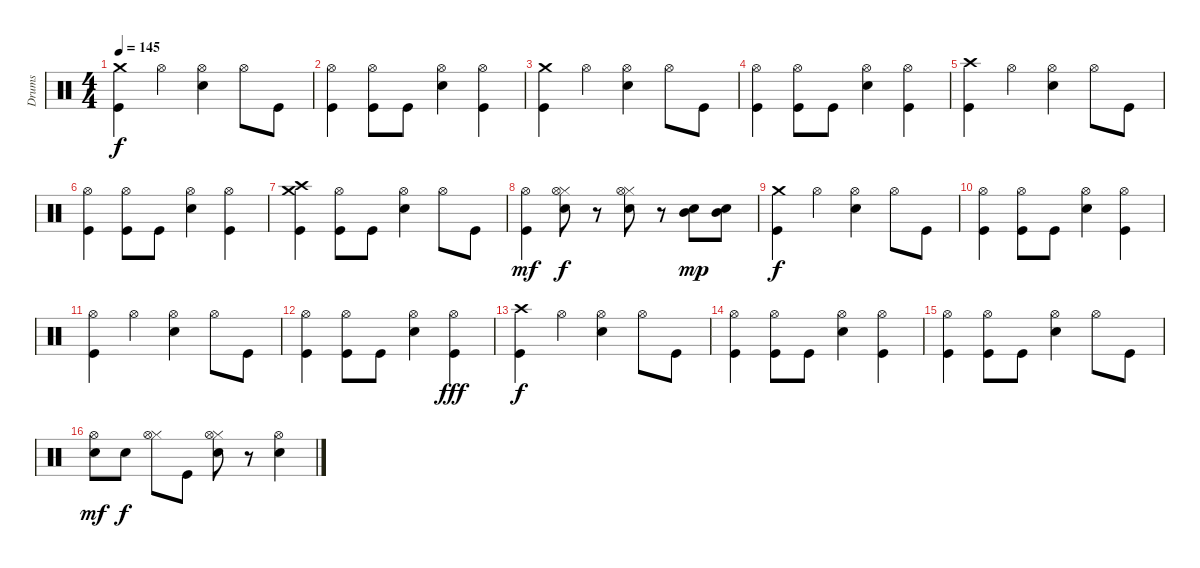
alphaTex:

\track ("Drums" "Drums") {instrument percussion}
\staff {score}
\articulation defaults
\ts (4 4)
\tempo 145
\clef neutral
\ks c
("Kick (hit)" "Crash medium (hit)").4{dy f} "Hi-Hat (open)".4 ("Hi-Hat (open)" "Electric Snare (hit)").4 "Hi-Hat (open)".8 "Kick (hit)".8 |
("Kick (hit)" "Hi-Hat (open)").4 ("Kick (hit)" "Hi-Hat (open)").8 "Kick (hit)".8 ("Hi-Hat (open)" "Electric Snare (hit)").4 ("Kick (hit)" "Hi-Hat (open)").4 |
("Kick (hit)" "Crash medium (hit)").4 "Hi-Hat (open)".4 ("Hi-Hat (open)" "Electric Snare (hit)").4 "Hi-Hat (open)".8 "Kick (hit)".8 |
("Kick (hit)" "Hi-Hat (open)").4 ("Kick (hit)" "Hi-Hat (open)").8 "Kick (hit)".8 ("Hi-Hat (open)" "Electric Snare (hit)").4 ("Kick (hit)" "Hi-Hat (open)").4 |
("Kick (hit)" "Crash high (hit)").4 "Hi-Hat (open)".4 ("Hi-Hat (open)" "Electric Snare (hit)").4 "Hi-Hat (open)".8 "Kick (hit)".8 |
("Kick (hit)" "Hi-Hat (open)").4 ("Kick (hit)" "Hi-Hat (open)").8 "Kick (hit)".8 ("Hi-Hat (open)" "Electric Snare (hit)").4 ("Kick (hit)" "Hi-Hat (open)").4 |
("Kick (hit)" "Crash high (hit)" "Crash medium (hit)").4 ("Kick (hit)" "Hi-Hat (open)").8 "Kick (hit)".8 ("Hi-Hat (open)" "Electric Snare (hit)").4 "Hi-Hat (open)".8 "Kick (hit)".8 |
("Kick (hit)" "Hi-Hat (open)").4{dy mf} ("Hi-Hat (closed)" "Hi-Hat (open)" "Snare (hit) 2").8{dy f} r.8 ("Hi-Hat (closed)" "Hi-Hat (open)" "Snare (hit) 2").8 r.8 ("Mid Tom (hit)" "Snare (hit) 2").8{dy mp} ("Mid Tom (hit)" "Snare (hit) 2").8 |
("Kick (hit)" "Crash medium (hit)").4{dy f} "Hi-Hat (open)".4 ("Hi-Hat (open)" "Electric Snare (hit)").4 "Hi-Hat (open)".8 "Kick (hit)".8 |
("Kick (hit)" "Hi-Hat (open)").4 ("Kick (hit)" "Hi-Hat (open)").8 "Kick (hit)".8 ("Hi-Hat (open)" "Electric Snare (hit)").4 ("Kick (hit)" "Hi-Hat (open)").4 |
("Kick (hit)" "Hi-Hat (open)").4 "Hi-Hat (open)".4 ("Hi-Hat (open)" "Electric Snare (hit)").4 "Hi-Hat (open)".8 "Kick (hit)".8 |
("Kick (hit)" "Hi-Hat (open)").4 ("Kick (hit)" "Hi-Hat (open)").8 "Kick (hit)".8 ("Hi-Hat (open)" "Electric Snare (hit)").4 ("Kick (hit)" "Hi-Hat (open)").4{dy fff} |
("Kick (hit)" "Crash high (hit)").4{dy f} "Hi-Hat (open)".4 ("Hi-Hat (open)" "Electric Snare (hit)").4 "Hi-Hat (open)".8 "Kick (hit)".8 |
("Kick (hit)" "Hi-Hat (open)").4 ("Kick (hit)" "Hi-Hat (open)").8 "Kick (hit)".8 ("Hi-Hat (open)" "Electric Snare (hit)").4 ("Kick (hit)" "Hi-Hat (open)").4 |
("Kick (hit)" "Hi-Hat (open)").4 ("Kick (hit)" "Hi-Hat (open)").8 "Kick (hit)".8 ("Hi-Hat (open)" "Electric Snare (hit)").4 "Hi-Hat (open)".8 "Kick (hit)".8 |
("Hi-Hat (open)" "Electric Snare (hit)").8{dy mf} "Electric Snare (hit)".8{dy f} ("Hi-Hat (closed)" "Hi-Hat (open)").8 "Kick (hit)".8 ("Hi-Hat (closed)" "Hi-Hat (open)" "Electric Snare (hit)").8 r.8 ("Hi-Hat (open)" "Electric Snare (hit)").4
